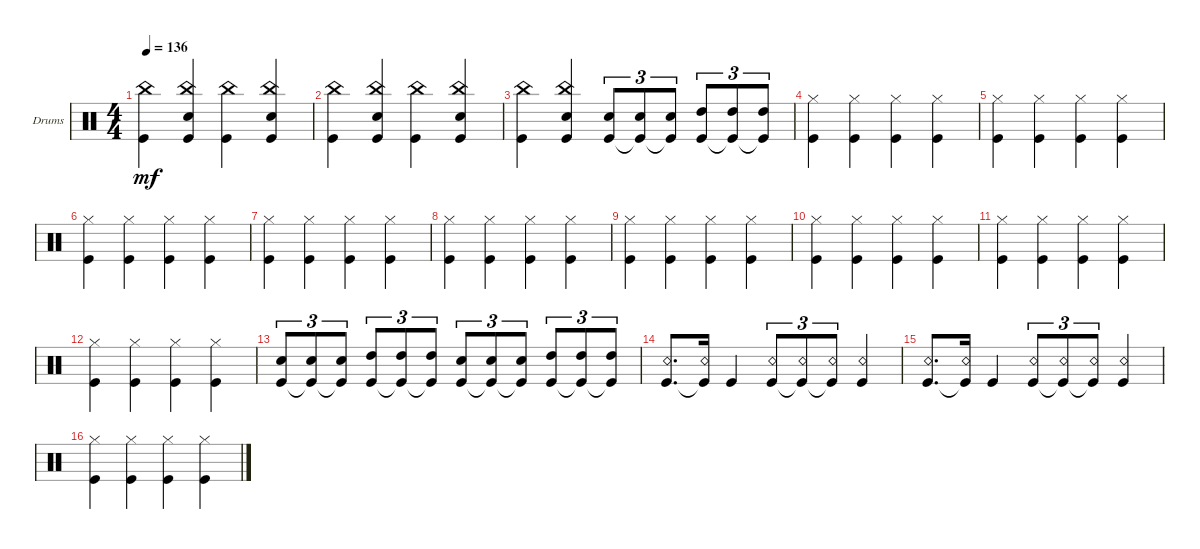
\defaultSystemsLayout 4
\bracketExtendMode groupsimilarinstruments
\firstSystemTrackNameOrientation horizontal
\otherSystemsTrackNameOrientation horizontal
\track ("Drumkit" "Drums") {instrument percussion}
\staff {score}
\articulation defaults
\ts (4 4)
\tempo 136
\clef neutral
\ks c
("Kick (hit)" "China (hit)").4{dy mf} ("Kick (hit)" "Snare (hit) 2" "China (hit)").4 ("Kick (hit)" "China (hit)").4 ("Kick (hit)" "Snare (hit) 2" "China (hit)").4 |
("Kick (hit)" "China (hit)").4 ("Kick (hit)" "Snare (hit) 2" "China (hit)").4 ("Kick (hit)" "China (hit)").4 ("Kick (hit)" "Snare (hit) 2" "China (hit)").4 |
("Kick (hit)" "China (hit)").4 ("Kick (hit)" "Snare (hit) 2" "China (hit)").4 ("Snare (hit) 2" "Kick (hit)").8{tu (3 2)} ("Snare (hit) 2" "Kick (hit)"{t}).8{tu (3 2)} ("Snare (hit) 2" "Kick (hit)"{t}).8{tu (3 2)} ("High Tom (hit)" "Kick (hit)").8{tu (3 2)} ("High Tom (hit)" "Kick (hit)"{t}).8{tu (3 2)} ("High Tom (hit)" "Kick (hit)"{t}).8{tu (3 2)} |
("Hi-Hat (closed)" "Kick (hit)").4 ("Hi-Hat (closed)" "Kick (hit)").4 ("Hi-Hat (closed)" "Kick (hit)").4 ("Hi-Hat (closed)" "Kick (hit)").4 |
("Hi-Hat (closed)" "Kick (hit)").4 ("Hi-Hat (closed)" "Kick (hit)").4 ("Hi-Hat (closed)" "Kick (hit)").4 ("Hi-Hat (closed)" "Kick (hit)").4 |
("Hi-Hat (closed)" "Kick (hit)").4 ("Hi-Hat (closed)" "Kick (hit)").4 ("Hi-Hat (closed)" "Kick (hit)").4 ("Hi-Hat (closed)" "Kick (hit)").4 |
("Hi-Hat (closed)" "Kick (hit)").4 ("Hi-Hat (closed)" "Kick (hit)").4 ("Hi-Hat (closed)" "Kick (hit)").4 ("Hi-Hat (closed)" "Kick (hit)").4 |
("Hi-Hat (closed)" "Kick (hit)").4 ("Hi-Hat (closed)" "Kick (hit)").4 ("Hi-Hat (closed)" "Kick (hit)").4 ("Hi-Hat (closed)" "Kick (hit)").4 |
("Hi-Hat (closed)" "Kick (hit)").4 ("Hi-Hat (closed)" "Kick (hit)").4 ("Hi-Hat (closed)" "Kick (hit)").4 ("Hi-Hat (closed)" "Kick (hit)").4 |
("Hi-Hat (closed)" "Kick (hit)").4 ("Hi-Hat (closed)" "Kick (hit)").4 ("Hi-Hat (closed)" "Kick (hit)").4 ("Hi-Hat (closed)" "Kick (hit)").4 |
("Hi-Hat (closed)" "Kick (hit)").4 ("Hi-Hat (closed)" "Kick (hit)").4 ("Hi-Hat (closed)" "Kick (hit)").4 ("Hi-Hat (closed)" "Kick (hit)").4 |
("Hi-Hat (closed)" "Kick (hit)").4 ("Hi-Hat (closed)" "Kick (hit)").4 ("Hi-Hat (closed)" "Kick (hit)").4 ("Hi-Hat (closed)" "Kick (hit)").4 |
("Snare (hit) 2" "Kick (hit)").8{tu (3 2)} ("Snare (hit) 2" "Kick (hit)"{t}).8{tu (3 2)} ("Snare (hit) 2" "Kick (hit)"{t}).8{tu (3 2)} ("High Tom (hit)" "Kick (hit)").8{tu (3 2)} ("High Tom (hit)" "Kick (hit)"{t}).8{tu (3 2)} ("High Tom (hit)" "Kick (hit)"{t}).8{tu (3 2)} ("Snare (hit) 2" "Kick (hit)").8{tu (3 2)} ("Snare (hit) 2" "Kick (hit)"{t}).8{tu (3 2)} ("Snare (hit) 2" "Kick (hit)"{t}).8{tu (3 2)} ("High Tom (hit)" "Kick (hit)").8{tu (3 2)} ("High Tom (hit)" "Kick (hit)"{t}).8{tu (3 2)} ("High Tom (hit)" "Kick (hit)"{t}).8{tu (3 2)} |
("Kick (hit)" "Snare (rim shot)").8{d} ("Kick (hit)"{t} "Snare (rim shot)").16 "Kick (hit)".4 ("Kick (hit)" "Snare (rim shot)").8{tu (3 2)} ("Kick (hit)"{t} "Snare (rim shot)").8{tu (3 2)} ("Kick (hit)"{t} "Snare (rim shot)").8{tu (3 2)} ("Kick (hit)" "Snare (rim shot)").4 |
("Kick (hit)" "Snare (rim shot)").8{d} ("Kick (hit)"{t} "Snare (rim shot)").16 "Kick (hit)".4 ("Kick (hit)" "Snare (rim shot)").8{tu (3 2)} ("Kick (hit)"{t} "Snare (rim shot)").8{tu (3 2)} ("Kick (hit)"{t} "Snare (rim shot)").8{tu (3 2)} ("Kick (hit)" "Snare (rim shot)").4 |
("Hi-Hat (closed)" "Kick (hit)").4 ("Hi-Hat (closed)" "Kick (hit)").4 ("Hi-Hat (closed)" "Kick (hit)").4 ("Hi-Hat (closed)" "Kick (hit)").4
